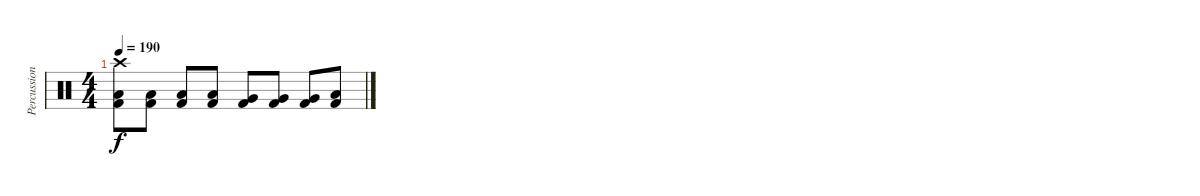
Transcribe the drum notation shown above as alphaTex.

\track ("Percussion" "Percussion") {instrument percussion}
\staff {score}
\articulation defaults
\ts (4 4)
\tempo 190
\clef neutral
\ks c
("Crash high (hit)" "Low Tom (hit)" "Kick (hit) 2").8{dy f} ("Low Tom (hit)" "Kick (hit) 2").8 ("Low Tom (hit)" "Kick (hit) 2").8 ("Low Tom (hit)" "Kick (hit) 2").8 ("Very Low Tom (hit)" "Kick (hit) 2").8 ("Very Low Tom (hit)" "Kick (hit) 2").8 ("Very Low Tom (hit)" "Kick (hit) 2").8 ("Low Floor Tom (hit)" "Kick (hit) 2").8
